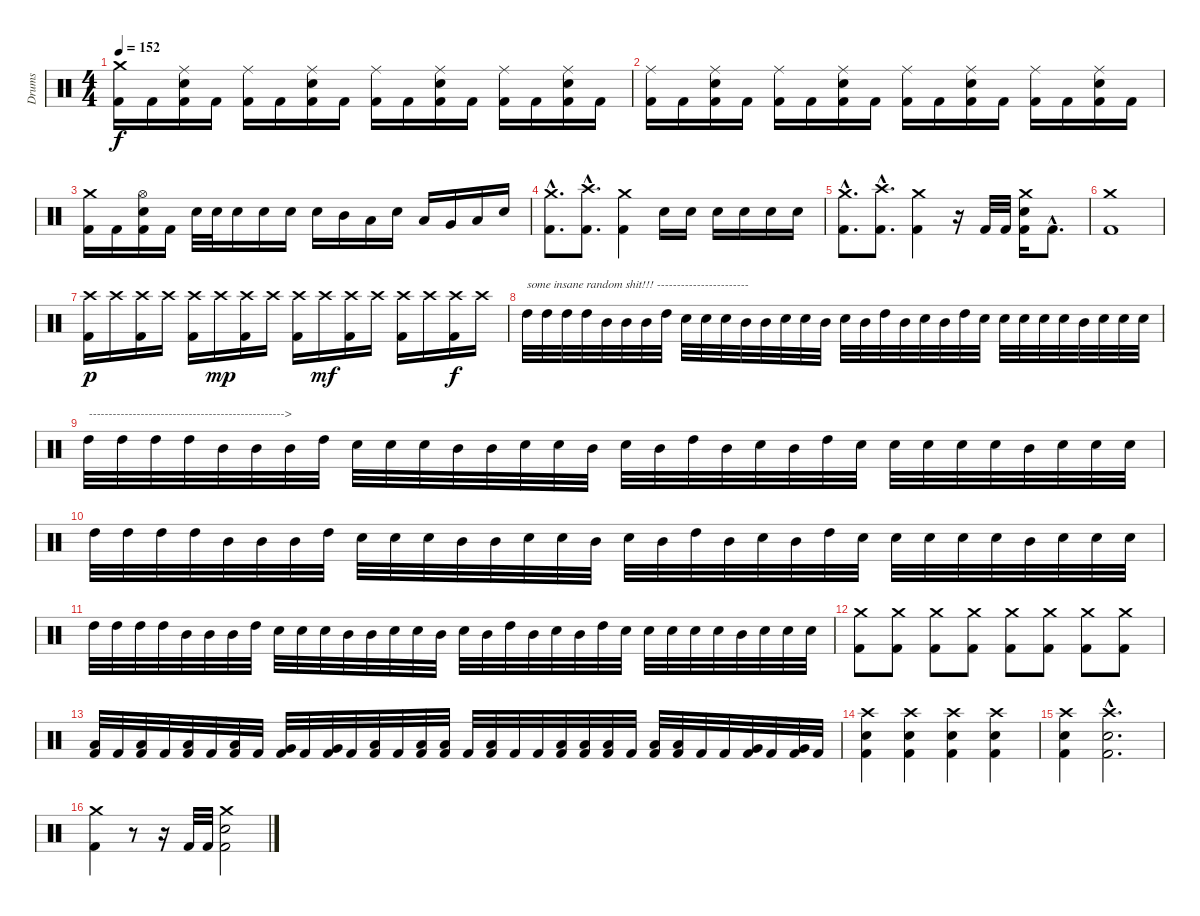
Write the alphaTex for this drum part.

\track ("Drums" "Drums") {instrument percussion}
\staff {score}
\articulation defaults
\ts (4 4)
\tempo 152
\clef neutral
\ks c
("Crash medium (hit)" "Kick (hit) 2").16{dy f} "Kick (hit) 2".16 ("Ride (middle)" "Snare (hit) 2" "Kick (hit) 2").16 "Kick (hit) 2".16 ("Ride (middle)" "Kick (hit) 2").16 "Kick (hit) 2".16 ("Ride (middle)" "Snare (hit) 2" "Kick (hit) 2").16 "Kick (hit) 2".16 ("Ride (middle)" "Kick (hit) 2").16 "Kick (hit) 2".16 ("Ride (middle)" "Snare (hit) 2" "Kick (hit) 2").16 "Kick (hit) 2".16 ("Ride (middle)" "Kick (hit) 2").16 "Kick (hit) 2".16 ("Ride (middle)" "Snare (hit) 2" "Kick (hit) 2").16 "Kick (hit) 2".16 |
("Ride (middle)" "Kick (hit) 2").16 "Kick (hit) 2".16 ("Ride (middle)" "Snare (hit) 2" "Kick (hit) 2").16 "Kick (hit) 2".16 ("Ride (middle)" "Kick (hit) 2").16 "Kick (hit) 2".16 ("Ride (middle)" "Snare (hit) 2" "Kick (hit) 2").16 "Kick (hit) 2".16 ("Ride (middle)" "Kick (hit) 2").16 "Kick (hit) 2".16 ("Ride (middle)" "Snare (hit) 2" "Kick (hit) 2").16 "Kick (hit) 2".16 ("Ride (middle)" "Kick (hit) 2").16 "Kick (hit) 2".16 ("Ride (middle)" "Snare (hit) 2" "Kick (hit) 2").16 "Kick (hit) 2".16 |
("Crash medium (hit)" "Kick (hit) 2").16 "Kick (hit) 2".16 ("Hi-Hat (open)" "Snare (hit) 2" "Kick (hit) 2").16 "Kick (hit) 2".16 "Snare (hit) 2".32 "Snare (hit) 2".32 "Snare (hit) 2".16 "Snare (hit) 2".16 "Snare (hit) 2".16 "Snare (hit) 2".16 "Mid Tom (hit)".16 "Low Tom (hit)".16 "Snare (hit) 2".16 "Low Tom (hit)".16 "Very Low Tom (hit)".16 "Low Floor Tom (hit)".16 "Snare (hit) 2".16 |
("Crash medium (hit)"{hac} "Kick (hit) 2"{hac}).8{d} ("Crash high (hit)"{hac} "Kick (hit) 2"{hac}).8{d} ("Crash medium (hit)" "Kick (hit) 2").4 "Snare (hit) 2".16 "Snare (hit) 2".16 "Snare (hit) 2".16 "Snare (hit) 2".16 "Snare (hit) 2".16 "Snare (hit) 2".16 |
("Crash medium (hit)"{hac} "Kick (hit) 2"{hac}).8{d} ("Crash high (hit)"{hac} "Kick (hit) 2"{hac}).8{d} ("Crash medium (hit)" "Kick (hit) 2").4 r.16 "Kick (hit) 2".32 "Kick (hit) 2".32 ("Crash medium (hit)" "Snare (hit) 2" "Kick (hit) 2").16 "Kick (hit) 2"{hac}.8{d} |
("Crash medium (hit)" "Kick (hit) 2").1 |
("Crash high (hit)" "Kick (hit) 2").16{dy p} "Crash high (hit)".16 ("Crash high (hit)" "Kick (hit) 2").16 "Crash high (hit)".16 ("Crash high (hit)" "Kick (hit) 2").16 "Crash high (hit)".16{dy mp} ("Crash high (hit)" "Kick (hit) 2").16 "Crash high (hit)".16 ("Crash high (hit)" "Kick (hit) 2").16 "Crash high (hit)".16{dy mf} ("Crash high (hit)" "Kick (hit) 2").16 "Crash high (hit)".16 ("Crash high (hit)" "Kick (hit) 2").16 "Crash high (hit)".16 ("Crash high (hit)" "Kick (hit) 2").16{dy f} "Crash high (hit)".16 |
"High Tom (hit)".32{txt "some insane random shit!!! -----------------------"} "High Tom (hit)".32 "High Tom (hit)".32 "High Tom (hit)".32 "Mid Tom (hit)".32 "Mid Tom (hit)".32 "Mid Tom (hit)".32 "High Tom (hit)".32 "Snare (hit) 2".32 "Snare (hit) 2".32 "Snare (hit) 2".32 "Mid Tom (hit)".32 "Mid Tom (hit)".32 "Snare (hit) 2".32 "Snare (hit) 2".32 "Mid Tom (hit)".32 "Snare (hit) 2".32 "Mid Tom (hit)".32 "High Tom (hit)".32 "Mid Tom (hit)".32 "Snare (hit) 2".32 "Mid Tom (hit)".32 "High Tom (hit)".32 "Snare (hit) 2".32 "Snare (hit) 2".32 "Snare (hit) 2".32 "Snare (hit) 2".32 "Snare (hit) 2".32 "Mid Tom (hit)".32 "Snare (hit) 2".32 "Snare (hit) 2".32 "Snare (hit) 2".32 |
"High Tom (hit)".32{txt "------------------------------------------------->"} "High Tom (hit)".32 "High Tom (hit)".32 "High Tom (hit)".32 "Mid Tom (hit)".32 "Mid Tom (hit)".32 "Mid Tom (hit)".32 "High Tom (hit)".32 "Snare (hit) 2".32 "Snare (hit) 2".32 "Snare (hit) 2".32 "Mid Tom (hit)".32 "Mid Tom (hit)".32 "Snare (hit) 2".32 "Snare (hit) 2".32 "Mid Tom (hit)".32 "Snare (hit) 2".32 "Mid Tom (hit)".32 "High Tom (hit)".32 "Mid Tom (hit)".32 "Snare (hit) 2".32 "Mid Tom (hit)".32 "High Tom (hit)".32 "Snare (hit) 2".32 "Snare (hit) 2".32 "Snare (hit) 2".32 "Snare (hit) 2".32 "Snare (hit) 2".32 "Mid Tom (hit)".32 "Snare (hit) 2".32 "Snare (hit) 2".32 "Snare (hit) 2".32 |
"High Tom (hit)".32 "High Tom (hit)".32 "High Tom (hit)".32 "High Tom (hit)".32 "Mid Tom (hit)".32 "Mid Tom (hit)".32 "Mid Tom (hit)".32 "High Tom (hit)".32 "Snare (hit) 2".32 "Snare (hit) 2".32 "Snare (hit) 2".32 "Mid Tom (hit)".32 "Mid Tom (hit)".32 "Snare (hit) 2".32 "Snare (hit) 2".32 "Mid Tom (hit)".32 "Snare (hit) 2".32 "Mid Tom (hit)".32 "High Tom (hit)".32 "Mid Tom (hit)".32 "Snare (hit) 2".32 "Mid Tom (hit)".32 "High Tom (hit)".32 "Snare (hit) 2".32 "Snare (hit) 2".32 "Snare (hit) 2".32 "Snare (hit) 2".32 "Snare (hit) 2".32 "Mid Tom (hit)".32 "Snare (hit) 2".32 "Snare (hit) 2".32 "Snare (hit) 2".32 |
"High Tom (hit)".32 "High Tom (hit)".32 "High Tom (hit)".32 "High Tom (hit)".32 "Mid Tom (hit)".32 "Mid Tom (hit)".32 "Mid Tom (hit)".32 "High Tom (hit)".32 "Snare (hit) 2".32 "Snare (hit) 2".32 "Snare (hit) 2".32 "Mid Tom (hit)".32 "Mid Tom (hit)".32 "Snare (hit) 2".32 "Snare (hit) 2".32 "Mid Tom (hit)".32 "Snare (hit) 2".32 "Mid Tom (hit)".32 "High Tom (hit)".32 "Mid Tom (hit)".32 "Snare (hit) 2".32 "Mid Tom (hit)".32 "High Tom (hit)".32 "Snare (hit) 2".32 "Snare (hit) 2".32 "Snare (hit) 2".32 "Snare (hit) 2".32 "Snare (hit) 2".32 "Mid Tom (hit)".32 "Snare (hit) 2".32 "Snare (hit) 2".32 "Snare (hit) 2".32 |
("Crash medium (hit)" "Kick (hit) 2").8 ("Crash medium (hit)" "Kick (hit) 2").8 ("Crash medium (hit)" "Kick (hit) 2").8 ("Crash medium (hit)" "Kick (hit) 2").8 ("Crash medium (hit)" "Kick (hit) 2").8 ("Crash medium (hit)" "Kick (hit) 2").8 ("Crash medium (hit)" "Kick (hit) 2").8 ("Crash medium (hit)" "Kick (hit) 2").8 |
("Low Tom (hit)" "Kick (hit) 2").32 "Kick (hit) 2".32 ("Low Tom (hit)" "Kick (hit) 2").32 "Kick (hit) 2".32 ("Low Tom (hit)" "Kick (hit) 2").32 "Kick (hit) 2".32 ("Low Tom (hit)" "Kick (hit) 2").32 "Kick (hit) 2".32 ("Very Low Tom (hit)" "Kick (hit) 2").32 "Kick (hit) 2".32 ("Very Low Tom (hit)" "Kick (hit) 2").32 "Kick (hit) 2".32 ("Low Tom (hit)" "Kick (hit) 2").32 "Kick (hit) 2".32 ("Low Tom (hit)" "Kick (hit) 2").32 ("Low Floor Tom (hit)" "Kick (hit) 2").32 "Kick (hit) 2".32 ("Low Floor Tom (hit)" "Kick (hit) 2").32 "Kick (hit) 2".32 "Kick (hit) 2".32 ("Low Floor Tom (hit)" "Kick (hit) 2").32 ("Low Tom (hit)" "Kick (hit) 2").32 ("Low Tom (hit)" "Kick (hit) 2").32 "Kick (hit) 2".32 ("Low Tom (hit)" "Kick (hit) 2").32 ("Low Tom (hit)" "Kick (hit) 2").32 "Kick (hit) 2".32 "Kick (hit) 2".32 ("Very Low Tom (hit)" "Kick (hit) 2").32 "Kick (hit) 2".32 ("Very Low Tom (hit)" "Kick (hit) 2").32 "Kick (hit) 2".32 |
("Crash high (hit)" "Snare (hit) 2" "Kick (hit) 2").4 ("Crash high (hit)" "Snare (hit) 2" "Kick (hit) 2").4 ("Crash high (hit)" "Snare (hit) 2" "Kick (hit) 2").4 ("Crash high (hit)" "Snare (hit) 2" "Kick (hit) 2").4 |
("Crash high (hit)" "Snare (hit) 2" "Kick (hit) 2").4 ("Crash high (hit)"{hac} "Snare (hit) 2"{hac} "Kick (hit) 2"{hac}).2{d} |
("Crash medium (hit)" "Kick (hit) 2").4 r.8 r.16 "Kick (hit) 2".32 "Kick (hit) 2".32 ("Crash medium (hit)" "Snare (hit) 2" "Kick (hit) 2").2
